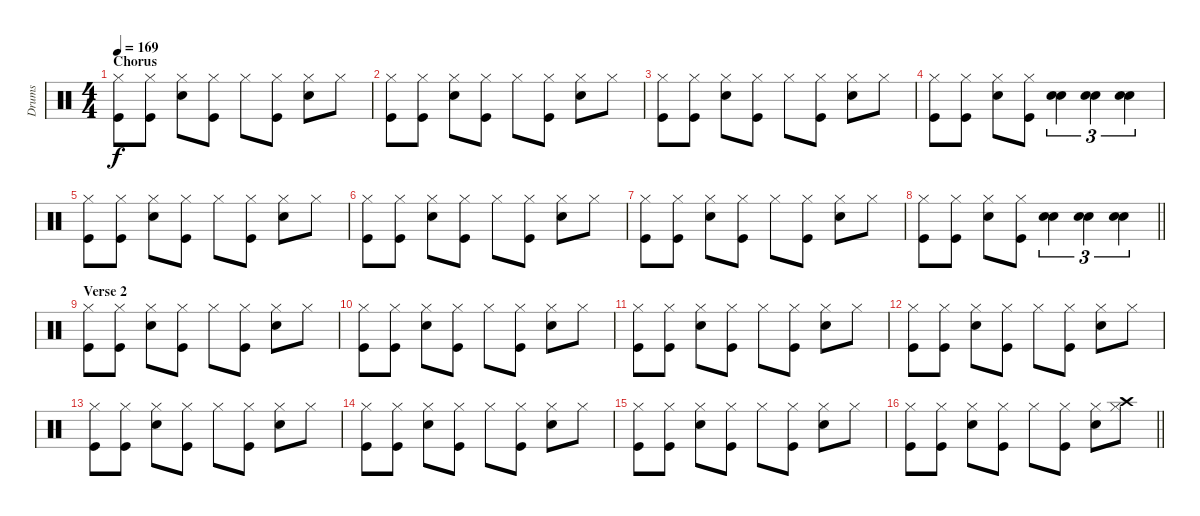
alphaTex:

\track ("Drums" "Drums") {instrument percussion}
\staff {score}
\articulation defaults
\ts (4 4)
\section ("" "Chorus")
\tempo 169
\clef neutral
\ks c
("Hi-Hat (closed)" "Kick (hit)").8{dy f} ("Hi-Hat (closed)" "Kick (hit)").8 ("Hi-Hat (closed)" "Snare (hit) 2").8 ("Hi-Hat (closed)" "Kick (hit)").8 "Hi-Hat (closed)".8 ("Hi-Hat (closed)" "Kick (hit)").8 ("Hi-Hat (closed)" "Snare (hit) 2").8 "Hi-Hat (closed)".8 |
("Hi-Hat (closed)" "Kick (hit)").8 ("Hi-Hat (closed)" "Kick (hit)").8 ("Hi-Hat (closed)" "Snare (hit) 2").8 ("Hi-Hat (closed)" "Kick (hit)").8 "Hi-Hat (closed)".8 ("Hi-Hat (closed)" "Kick (hit)").8 ("Hi-Hat (closed)" "Snare (hit) 2").8 "Hi-Hat (closed)".8 |
("Hi-Hat (closed)" "Kick (hit)").8 ("Hi-Hat (closed)" "Kick (hit)").8 ("Hi-Hat (closed)" "Snare (hit) 2").8 ("Hi-Hat (closed)" "Kick (hit)").8 "Hi-Hat (closed)".8 ("Hi-Hat (closed)" "Kick (hit)").8 ("Hi-Hat (closed)" "Snare (hit) 2").8 "Hi-Hat (closed)".8 |
("Hi-Hat (closed)" "Kick (hit)").8 ("Hi-Hat (closed)" "Kick (hit)").8 ("Hi-Hat (closed)" "Snare (hit) 2").8 ("Hi-Hat (closed)" "Kick (hit)").8 ("Snare (hit) 2" "Snare (hit) 2").4{tu (3 2)} ("Snare (hit) 2" "Snare (hit) 2").4{tu (3 2)} ("Snare (hit) 2" "Snare (hit) 2").4{tu (3 2)} |
("Hi-Hat (closed)" "Kick (hit)").8 ("Hi-Hat (closed)" "Kick (hit)").8 ("Hi-Hat (closed)" "Snare (hit) 2").8 ("Hi-Hat (closed)" "Kick (hit)").8 "Hi-Hat (closed)".8 ("Hi-Hat (closed)" "Kick (hit)").8 ("Hi-Hat (closed)" "Snare (hit) 2").8 "Hi-Hat (closed)".8 |
("Hi-Hat (closed)" "Kick (hit)").8 ("Hi-Hat (closed)" "Kick (hit)").8 ("Hi-Hat (closed)" "Snare (hit) 2").8 ("Hi-Hat (closed)" "Kick (hit)").8 "Hi-Hat (closed)".8 ("Hi-Hat (closed)" "Kick (hit)").8 ("Hi-Hat (closed)" "Snare (hit) 2").8 "Hi-Hat (closed)".8 |
("Hi-Hat (closed)" "Kick (hit)").8 ("Hi-Hat (closed)" "Kick (hit)").8 ("Hi-Hat (closed)" "Snare (hit) 2").8 ("Hi-Hat (closed)" "Kick (hit)").8 "Hi-Hat (closed)".8 ("Hi-Hat (closed)" "Kick (hit)").8 ("Hi-Hat (closed)" "Snare (hit) 2").8 "Hi-Hat (closed)".8 |
\barLineRight lightlight
("Hi-Hat (closed)" "Kick (hit)").8 ("Hi-Hat (closed)" "Kick (hit)").8 ("Hi-Hat (closed)" "Snare (hit) 2").8 ("Hi-Hat (closed)" "Kick (hit)").8 ("Snare (hit) 2" "Snare (hit) 2").4{tu (3 2)} ("Snare (hit) 2" "Snare (hit) 2").4{tu (3 2)} ("Snare (hit) 2" "Snare (hit) 2").4{tu (3 2)} |
\section ("" "Verse 2")
("Hi-Hat (closed)" "Kick (hit)").8 ("Hi-Hat (closed)" "Kick (hit)").8 ("Hi-Hat (closed)" "Snare (hit) 2").8 ("Hi-Hat (closed)" "Kick (hit)").8 "Hi-Hat (closed)".8 ("Hi-Hat (closed)" "Kick (hit)").8 ("Hi-Hat (closed)" "Snare (hit) 2").8 "Hi-Hat (closed)".8 |
("Hi-Hat (closed)" "Kick (hit)").8 ("Hi-Hat (closed)" "Kick (hit)").8 ("Hi-Hat (closed)" "Snare (hit) 2").8 ("Hi-Hat (closed)" "Kick (hit)").8 "Hi-Hat (closed)".8 ("Hi-Hat (closed)" "Kick (hit)").8 ("Hi-Hat (closed)" "Snare (hit) 2").8 "Hi-Hat (closed)".8 |
("Hi-Hat (closed)" "Kick (hit)").8 ("Hi-Hat (closed)" "Kick (hit)").8 ("Hi-Hat (closed)" "Snare (hit) 2").8 ("Hi-Hat (closed)" "Kick (hit)").8 "Hi-Hat (closed)".8 ("Hi-Hat (closed)" "Kick (hit)").8 ("Hi-Hat (closed)" "Snare (hit) 2").8 "Hi-Hat (closed)".8 |
("Hi-Hat (closed)" "Kick (hit)").8 ("Hi-Hat (closed)" "Kick (hit)").8 ("Hi-Hat (closed)" "Snare (hit) 2").8 ("Hi-Hat (closed)" "Kick (hit)").8 "Hi-Hat (closed)".8 ("Hi-Hat (closed)" "Kick (hit)").8 ("Hi-Hat (closed)" "Snare (hit) 2").8 "Hi-Hat (closed)".8 |
("Hi-Hat (closed)" "Kick (hit)").8 ("Hi-Hat (closed)" "Kick (hit)").8 ("Hi-Hat (closed)" "Snare (hit) 2").8 ("Hi-Hat (closed)" "Kick (hit)").8 "Hi-Hat (closed)".8 ("Hi-Hat (closed)" "Kick (hit)").8 ("Hi-Hat (closed)" "Snare (hit) 2").8 "Hi-Hat (closed)".8 |
("Hi-Hat (closed)" "Kick (hit)").8 ("Hi-Hat (closed)" "Kick (hit)").8 ("Hi-Hat (closed)" "Snare (hit) 2").8 ("Hi-Hat (closed)" "Kick (hit)").8 "Hi-Hat (closed)".8 ("Hi-Hat (closed)" "Kick (hit)").8 ("Hi-Hat (closed)" "Snare (hit) 2").8 "Hi-Hat (closed)".8 |
("Hi-Hat (closed)" "Kick (hit)").8 ("Hi-Hat (closed)" "Kick (hit)").8 ("Hi-Hat (closed)" "Snare (hit) 2").8 ("Hi-Hat (closed)" "Kick (hit)").8 "Hi-Hat (closed)".8 ("Hi-Hat (closed)" "Kick (hit)").8 ("Hi-Hat (closed)" "Snare (hit) 2").8 "Hi-Hat (closed)".8 |
\barLineRight lightlight
("Hi-Hat (closed)" "Kick (hit)").8 ("Hi-Hat (closed)" "Kick (hit)").8 ("Hi-Hat (closed)" "Snare (hit) 2").8 ("Hi-Hat (closed)" "Kick (hit)").8 "Hi-Hat (closed)".8 ("Hi-Hat (closed)" "Kick (hit)").8 ("Hi-Hat (closed)" "Snare (hit) 2").8 ("Hi-Hat (closed)" "Crash high (hit)").8
